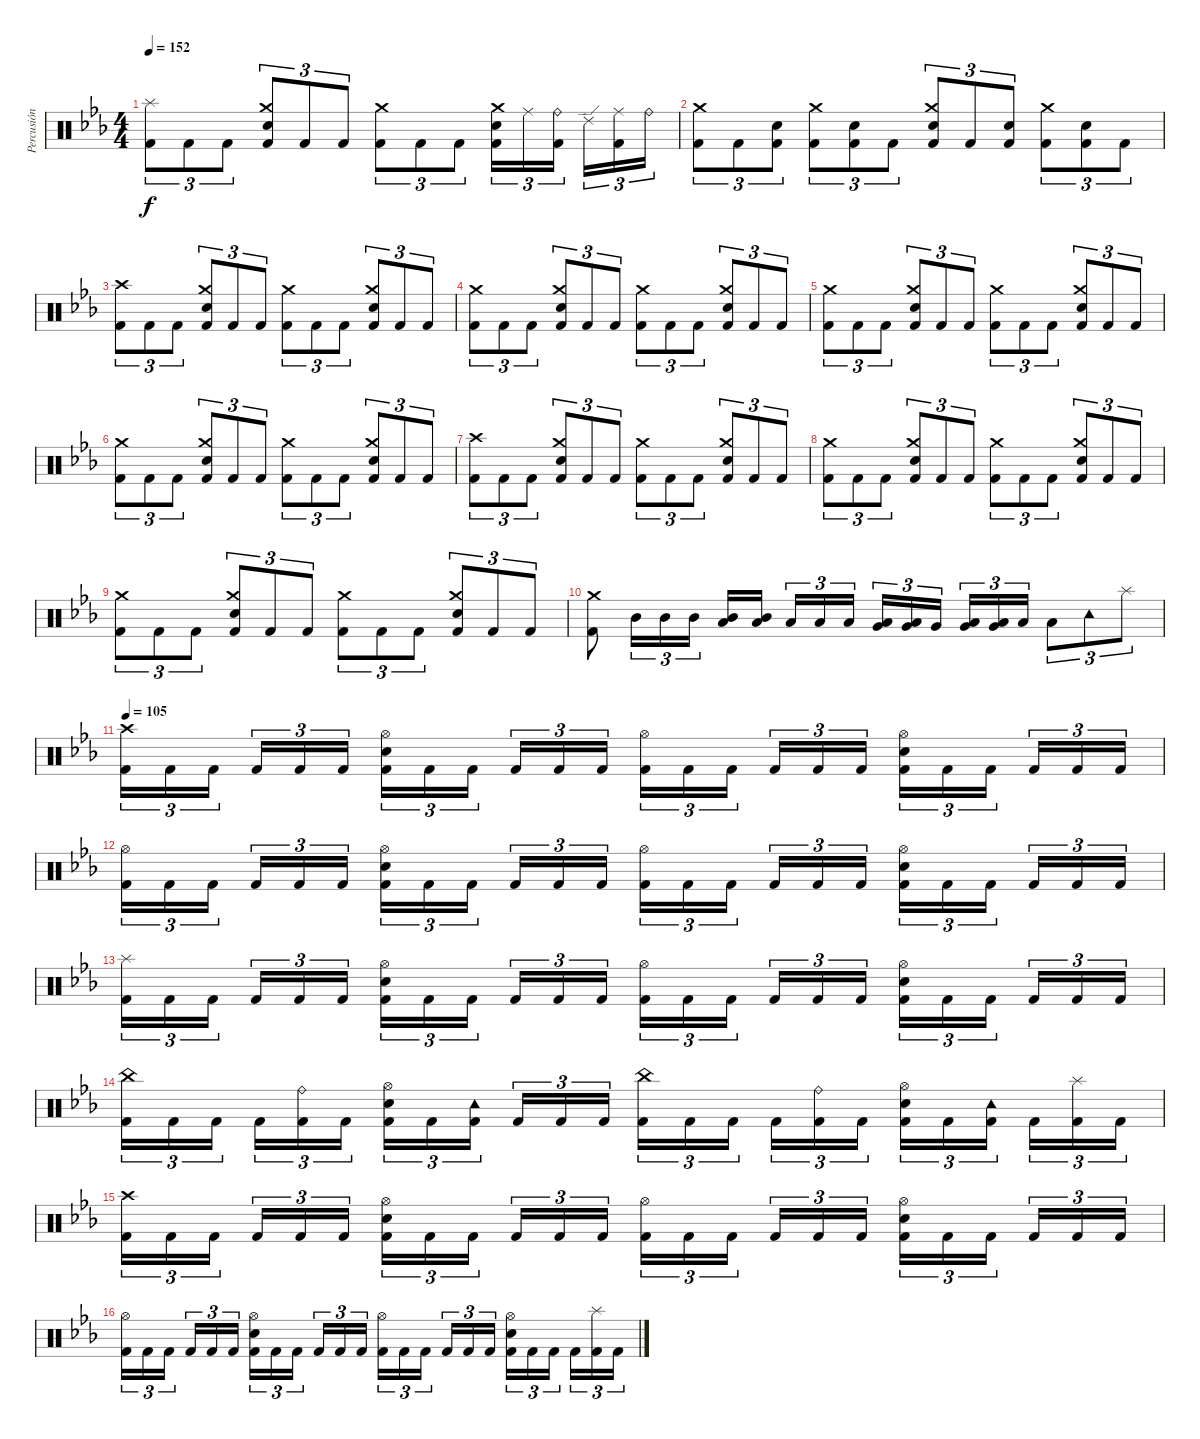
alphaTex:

\track ("Percusión" "Percusión") {instrument percussion}
\staff {score}
\articulation defaults
\ts (4 4)
\tempo 152
\clef neutral
\ks cminor
("Splash (hit)" "Kick (hit) 2").8{tu (3 2) dy f} "Kick (hit) 2".8{tu (3 2)} "Kick (hit) 2".8{tu (3 2)} ("Crash medium (hit)" "Snare (hit) 2" "Kick (hit) 2").8{tu (3 2)} "Kick (hit) 2".8{tu (3 2)} "Kick (hit) 2".8{tu (3 2)} ("Crash medium (hit)" "Kick (hit) 2").8{tu (3 2)} "Kick (hit) 2".8{tu (3 2)} "Kick (hit) 2".8{tu (3 2)} ("Crash medium (hit)" "Snare (hit) 2" "Kick (hit) 2").16{tu (3 2)} "Ride (middle)".16{tu (3 2)} ("Ride (bell)" "Kick (hit) 2").16{tu (3 2) beam splitsecondary} "Ride (edge) 2".16{tu (3 2)} ("Ride (middle)" "Kick (hit) 2").16{tu (3 2)} "Ride (bell)".16{tu (3 2)} |
("Crash medium (hit)" "Kick (hit) 2").8{tu (3 2)} "Kick (hit) 2".8{tu (3 2)} ("Snare (hit) 2" "Kick (hit) 2").8{tu (3 2)} ("Crash medium (hit)" "Kick (hit) 2").8{tu (3 2)} ("Snare (hit) 2" "Kick (hit) 2").8{tu (3 2)} "Kick (hit) 2".8{tu (3 2)} ("Crash medium (hit)" "Snare (hit) 2" "Kick (hit) 2").8{tu (3 2)} "Kick (hit) 2".8{tu (3 2)} ("Snare (hit) 2" "Kick (hit) 2").8{tu (3 2)} ("Crash medium (hit)" "Kick (hit) 2").8{tu (3 2)} ("Snare (hit) 2" "Kick (hit) 2").8{tu (3 2)} "Kick (hit) 2".8{tu (3 2)} |
("Crash high (hit)" "Kick (hit) 2").8{tu (3 2)} "Kick (hit) 2".8{tu (3 2)} "Kick (hit) 2".8{tu (3 2)} ("Crash medium (hit)" "Snare (hit) 2" "Kick (hit) 2").8{tu (3 2)} "Kick (hit) 2".8{tu (3 2)} "Kick (hit) 2".8{tu (3 2)} ("Crash medium (hit)" "Kick (hit) 2").8{tu (3 2)} "Kick (hit) 2".8{tu (3 2)} "Kick (hit) 2".8{tu (3 2)} ("Crash medium (hit)" "Snare (hit) 2" "Kick (hit) 2").8{tu (3 2)} "Kick (hit) 2".8{tu (3 2)} "Kick (hit) 2".8{tu (3 2)} |
("Crash medium (hit)" "Kick (hit) 2").8{tu (3 2)} "Kick (hit) 2".8{tu (3 2)} "Kick (hit) 2".8{tu (3 2)} ("Crash medium (hit)" "Snare (hit) 2" "Kick (hit) 2").8{tu (3 2)} "Kick (hit) 2".8{tu (3 2)} "Kick (hit) 2".8{tu (3 2)} ("Crash medium (hit)" "Kick (hit) 2").8{tu (3 2)} "Kick (hit) 2".8{tu (3 2)} "Kick (hit) 2".8{tu (3 2)} ("Crash medium (hit)" "Snare (hit) 2" "Kick (hit) 2").8{tu (3 2)} "Kick (hit) 2".8{tu (3 2)} "Kick (hit) 2".8{tu (3 2)} |
("Crash medium (hit)" "Kick (hit) 2").8{tu (3 2)} "Kick (hit) 2".8{tu (3 2)} "Kick (hit) 2".8{tu (3 2)} ("Crash medium (hit)" "Snare (hit) 2" "Kick (hit) 2").8{tu (3 2)} "Kick (hit) 2".8{tu (3 2)} "Kick (hit) 2".8{tu (3 2)} ("Crash medium (hit)" "Kick (hit) 2").8{tu (3 2)} "Kick (hit) 2".8{tu (3 2)} "Kick (hit) 2".8{tu (3 2)} ("Crash medium (hit)" "Snare (hit) 2" "Kick (hit) 2").8{tu (3 2)} "Kick (hit) 2".8{tu (3 2)} "Kick (hit) 2".8{tu (3 2)} |
("Crash medium (hit)" "Kick (hit) 2").8{tu (3 2)} "Kick (hit) 2".8{tu (3 2)} "Kick (hit) 2".8{tu (3 2)} ("Crash medium (hit)" "Snare (hit) 2" "Kick (hit) 2").8{tu (3 2)} "Kick (hit) 2".8{tu (3 2)} "Kick (hit) 2".8{tu (3 2)} ("Crash medium (hit)" "Kick (hit) 2").8{tu (3 2)} "Kick (hit) 2".8{tu (3 2)} "Kick (hit) 2".8{tu (3 2)} ("Crash medium (hit)" "Snare (hit) 2" "Kick (hit) 2").8{tu (3 2)} "Kick (hit) 2".8{tu (3 2)} "Kick (hit) 2".8{tu (3 2)} |
("Crash high (hit)" "Kick (hit) 2").8{tu (3 2)} "Kick (hit) 2".8{tu (3 2)} "Kick (hit) 2".8{tu (3 2)} ("Crash medium (hit)" "Snare (hit) 2" "Kick (hit) 2").8{tu (3 2)} "Kick (hit) 2".8{tu (3 2)} "Kick (hit) 2".8{tu (3 2)} ("Crash medium (hit)" "Kick (hit) 2").8{tu (3 2)} "Kick (hit) 2".8{tu (3 2)} "Kick (hit) 2".8{tu (3 2)} ("Crash medium (hit)" "Snare (hit) 2" "Kick (hit) 2").8{tu (3 2)} "Kick (hit) 2".8{tu (3 2)} "Kick (hit) 2".8{tu (3 2)} |
("Crash medium (hit)" "Kick (hit) 2").8{tu (3 2)} "Kick (hit) 2".8{tu (3 2)} "Kick (hit) 2".8{tu (3 2)} ("Crash medium (hit)" "Snare (hit) 2" "Kick (hit) 2").8{tu (3 2)} "Kick (hit) 2".8{tu (3 2)} "Kick (hit) 2".8{tu (3 2)} ("Crash medium (hit)" "Kick (hit) 2").8{tu (3 2)} "Kick (hit) 2".8{tu (3 2)} "Kick (hit) 2".8{tu (3 2)} ("Crash medium (hit)" "Snare (hit) 2" "Kick (hit) 2").8{tu (3 2)} "Kick (hit) 2".8{tu (3 2)} "Kick (hit) 2".8{tu (3 2)} |
("Crash medium (hit)" "Kick (hit) 2").8{tu (3 2)} "Kick (hit) 2".8{tu (3 2)} "Kick (hit) 2".8{tu (3 2)} ("Crash medium (hit)" "Snare (hit) 2" "Kick (hit) 2").8{tu (3 2)} "Kick (hit) 2".8{tu (3 2)} "Kick (hit) 2".8{tu (3 2)} ("Crash medium (hit)" "Kick (hit) 2").8{tu (3 2)} "Kick (hit) 2".8{tu (3 2)} "Kick (hit) 2".8{tu (3 2)} ("Crash medium (hit)" "Snare (hit) 2" "Kick (hit) 2").8{tu (3 2)} "Kick (hit) 2".8{tu (3 2)} "Kick (hit) 2".8{tu (3 2)} |
("Crash medium (hit)" "Kick (hit) 2").8 "Mid Tom (hit)".16{tu (3 2)} "Mid Tom (hit)".16{tu (3 2)} "Mid Tom (hit)".16{tu (3 2)} ("Low Tom (hit)" "Mid Tom (hit)").16 ("Low Tom (hit)" "Mid Tom (hit)").16{beam splitsecondary} "Low Tom (hit)".16{tu (3 2)} "Low Tom (hit)".16{tu (3 2)} "Low Tom (hit)".16{tu (3 2)} ("Low Tom (hit)" "Very Low Tom (hit)").16{tu (3 2)} ("Low Tom (hit)" "Very Low Tom (hit)").16{tu (3 2)} "Very Low Tom (hit)".16{tu (3 2) beam splitsecondary} ("Very Low Tom (hit)" "Low Floor Tom (hit)").16{tu (3 2)} ("Very Low Tom (hit)" "Low Floor Tom (hit)").16{tu (3 2)} "Low Floor Tom (hit)".16{tu (3 2)} "Low Floor Tom (hit)".8{tu (3 2)} "Tambourine (hit)".8{tu (3 2)} "Splash (hit)".8{tu (3 2)} |
\tempo 105
("Crash high (hit)" "Kick (hit) 2").16{tu (3 2)} "Kick (hit) 2".16{tu (3 2)} "Kick (hit) 2".16{tu (3 2) beam splitsecondary} "Kick (hit) 2".16{tu (3 2)} "Kick (hit) 2".16{tu (3 2)} "Kick (hit) 2".16{tu (3 2)} ("Hi-Hat (open)" "Snare (hit) 2" "Kick (hit) 2").16{tu (3 2)} "Kick (hit) 2".16{tu (3 2)} "Kick (hit) 2".16{tu (3 2) beam splitsecondary} "Kick (hit) 2".16{tu (3 2)} "Kick (hit) 2".16{tu (3 2)} "Kick (hit) 2".16{tu (3 2)} ("Hi-Hat (open)" "Kick (hit) 2").16{tu (3 2)} "Kick (hit) 2".16{tu (3 2)} "Kick (hit) 2".16{tu (3 2) beam splitsecondary} "Kick (hit) 2".16{tu (3 2)} "Kick (hit) 2".16{tu (3 2)} "Kick (hit) 2".16{tu (3 2)} ("Hi-Hat (open)" "Snare (hit) 2" "Kick (hit) 2").16{tu (3 2)} "Kick (hit) 2".16{tu (3 2)} "Kick (hit) 2".16{tu (3 2) beam splitsecondary} "Kick (hit) 2".16{tu (3 2)} "Kick (hit) 2".16{tu (3 2)} "Kick (hit) 2".16{tu (3 2)} |
("Hi-Hat (open)" "Kick (hit) 2").16{tu (3 2)} "Kick (hit) 2".16{tu (3 2)} "Kick (hit) 2".16{tu (3 2) beam splitsecondary} "Kick (hit) 2".16{tu (3 2)} "Kick (hit) 2".16{tu (3 2)} "Kick (hit) 2".16{tu (3 2)} ("Hi-Hat (open)" "Snare (hit) 2" "Kick (hit) 2").16{tu (3 2)} "Kick (hit) 2".16{tu (3 2)} "Kick (hit) 2".16{tu (3 2) beam splitsecondary} "Kick (hit) 2".16{tu (3 2)} "Kick (hit) 2".16{tu (3 2)} "Kick (hit) 2".16{tu (3 2)} ("Hi-Hat (open)" "Kick (hit) 2").16{tu (3 2)} "Kick (hit) 2".16{tu (3 2)} "Kick (hit) 2".16{tu (3 2) beam splitsecondary} "Kick (hit) 2".16{tu (3 2)} "Kick (hit) 2".16{tu (3 2)} "Kick (hit) 2".16{tu (3 2)} ("Hi-Hat (open)" "Snare (hit) 2" "Kick (hit) 2").16{tu (3 2)} "Kick (hit) 2".16{tu (3 2)} "Kick (hit) 2".16{tu (3 2) beam splitsecondary} "Kick (hit) 2".16{tu (3 2)} "Kick (hit) 2".16{tu (3 2)} "Kick (hit) 2".16{tu (3 2)} |
("Splash (hit)" "Kick (hit) 2").16{tu (3 2)} "Kick (hit) 2".16{tu (3 2)} "Kick (hit) 2".16{tu (3 2) beam splitsecondary} "Kick (hit) 2".16{tu (3 2)} "Kick (hit) 2".16{tu (3 2)} "Kick (hit) 2".16{tu (3 2)} ("Hi-Hat (open)" "Snare (hit) 2" "Kick (hit) 2").16{tu (3 2)} "Kick (hit) 2".16{tu (3 2)} "Kick (hit) 2".16{tu (3 2) beam splitsecondary} "Kick (hit) 2".16{tu (3 2)} "Kick (hit) 2".16{tu (3 2)} "Kick (hit) 2".16{tu (3 2)} ("Hi-Hat (open)" "Kick (hit) 2").16{tu (3 2)} "Kick (hit) 2".16{tu (3 2)} "Kick (hit) 2".16{tu (3 2) beam splitsecondary} "Kick (hit) 2".16{tu (3 2)} "Kick (hit) 2".16{tu (3 2)} "Kick (hit) 2".16{tu (3 2)} ("Hi-Hat (open)" "Snare (hit) 2" "Kick (hit) 2").16{tu (3 2)} "Kick (hit) 2".16{tu (3 2)} "Kick (hit) 2".16{tu (3 2) beam splitsecondary} "Kick (hit) 2".16{tu (3 2)} "Kick (hit) 2".16{tu (3 2)} "Kick (hit) 2".16{tu (3 2)} |
("China (hit)" "Kick (hit) 2").16{tu (3 2)} "Kick (hit) 2".16{tu (3 2)} "Kick (hit) 2".16{tu (3 2) beam splitsecondary} "Kick (hit) 2".16{tu (3 2)} ("Ride (bell)" "Kick (hit) 2").16{tu (3 2)} "Kick (hit) 2".16{tu (3 2)} ("Hi-Hat (open)" "Snare (hit) 2" "Kick (hit) 2").16{tu (3 2)} "Kick (hit) 2".16{tu (3 2)} ("Tambourine (hit)" "Kick (hit) 2").16{tu (3 2) beam splitsecondary} "Kick (hit) 2".16{tu (3 2)} "Kick (hit) 2".16{tu (3 2)} "Kick (hit) 2".16{tu (3 2)} ("China (hit)" "Kick (hit) 2").16{tu (3 2)} "Kick (hit) 2".16{tu (3 2)} "Kick (hit) 2".16{tu (3 2) beam splitsecondary} "Kick (hit) 2".16{tu (3 2)} ("Ride (bell)" "Kick (hit) 2").16{tu (3 2)} "Kick (hit) 2".16{tu (3 2)} ("Hi-Hat (open)" "Snare (hit) 2" "Kick (hit) 2").16{tu (3 2)} "Kick (hit) 2".16{tu (3 2)} ("Tambourine (hit)" "Kick (hit) 2").16{tu (3 2) beam splitsecondary} "Kick (hit) 2".16{tu (3 2)} ("Splash (hit)" "Kick (hit) 2").16{tu (3 2)} "Kick (hit) 2".16{tu (3 2)} |
("Crash high (hit)" "Kick (hit) 2").16{tu (3 2)} "Kick (hit) 2".16{tu (3 2)} "Kick (hit) 2".16{tu (3 2) beam splitsecondary} "Kick (hit) 2".16{tu (3 2)} "Kick (hit) 2".16{tu (3 2)} "Kick (hit) 2".16{tu (3 2)} ("Hi-Hat (open)" "Snare (hit) 2" "Kick (hit) 2").16{tu (3 2)} "Kick (hit) 2".16{tu (3 2)} "Kick (hit) 2".16{tu (3 2) beam splitsecondary} "Kick (hit) 2".16{tu (3 2)} "Kick (hit) 2".16{tu (3 2)} "Kick (hit) 2".16{tu (3 2)} ("Hi-Hat (open)" "Kick (hit) 2").16{tu (3 2)} "Kick (hit) 2".16{tu (3 2)} "Kick (hit) 2".16{tu (3 2) beam splitsecondary} "Kick (hit) 2".16{tu (3 2)} "Kick (hit) 2".16{tu (3 2)} "Kick (hit) 2".16{tu (3 2)} ("Hi-Hat (open)" "Snare (hit) 2" "Kick (hit) 2").16{tu (3 2)} "Kick (hit) 2".16{tu (3 2)} "Kick (hit) 2".16{tu (3 2) beam splitsecondary} "Kick (hit) 2".16{tu (3 2)} "Kick (hit) 2".16{tu (3 2)} "Kick (hit) 2".16{tu (3 2)} |
("Hi-Hat (open)" "Kick (hit) 2").16{tu (3 2)} "Kick (hit) 2".16{tu (3 2)} "Kick (hit) 2".16{tu (3 2) beam splitsecondary} "Kick (hit) 2".16{tu (3 2)} "Kick (hit) 2".16{tu (3 2)} "Kick (hit) 2".16{tu (3 2)} ("Hi-Hat (open)" "Snare (hit) 2" "Kick (hit) 2").16{tu (3 2)} "Kick (hit) 2".16{tu (3 2)} "Kick (hit) 2".16{tu (3 2) beam splitsecondary} "Kick (hit) 2".16{tu (3 2)} "Kick (hit) 2".16{tu (3 2)} "Kick (hit) 2".16{tu (3 2)} ("Hi-Hat (open)" "Kick (hit) 2").16{tu (3 2)} "Kick (hit) 2".16{tu (3 2)} "Kick (hit) 2".16{tu (3 2) beam splitsecondary} "Kick (hit) 2".16{tu (3 2)} "Kick (hit) 2".16{tu (3 2)} "Kick (hit) 2".16{tu (3 2)} ("Hi-Hat (open)" "Snare (hit) 2" "Kick (hit) 2").16{tu (3 2)} "Kick (hit) 2".16{tu (3 2)} "Kick (hit) 2".16{tu (3 2) beam splitsecondary} "Kick (hit) 2".16{tu (3 2)} ("Splash (hit)" "Kick (hit) 2").16{tu (3 2)} "Kick (hit) 2".16{tu (3 2)}
